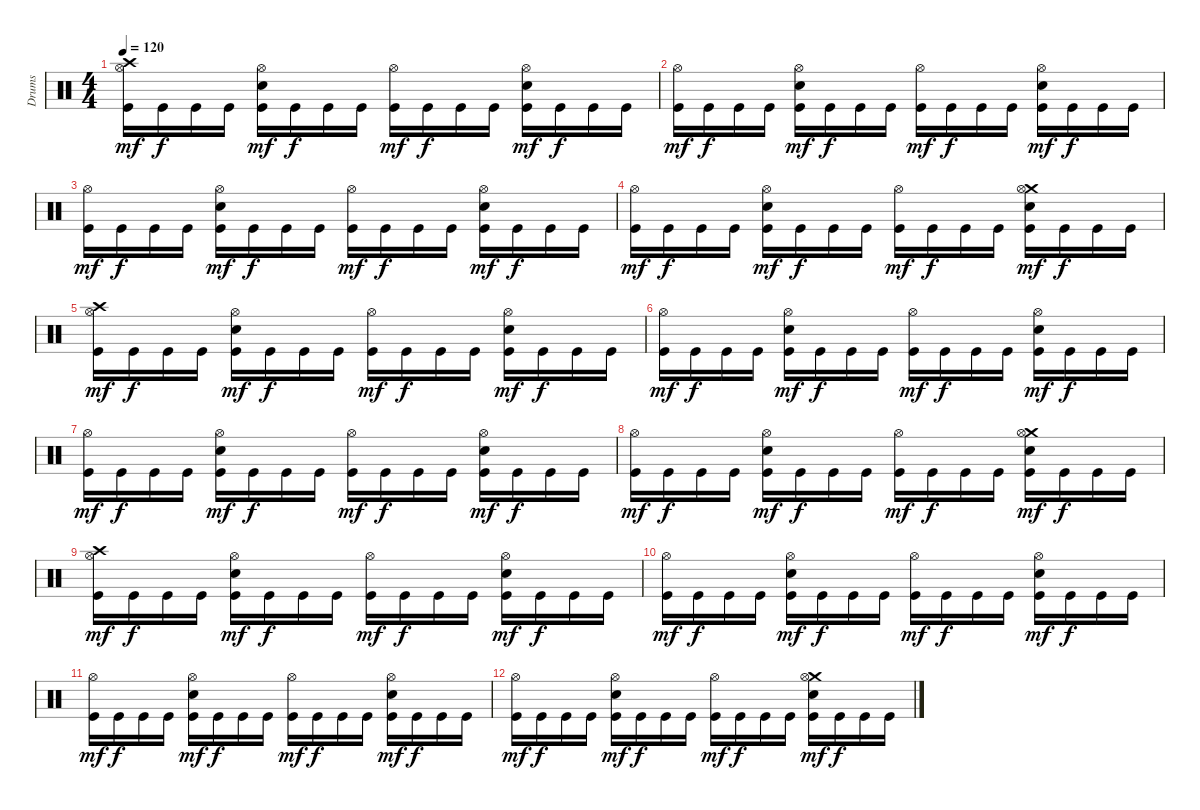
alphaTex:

\track ("Drums" "Drums") {instrument percussion}
\staff {score}
\articulation defaults
\ts (4 4)
\tempo 120
\clef neutral
\ks c
("Crash high (hit)" "Hi-Hat (open)" "Kick (hit)").16{dy mf} "Kick (hit)".16{dy f} "Kick (hit)".16 "Kick (hit)".16 ("Hi-Hat (open)" "Electric Snare (hit)" "Kick (hit)").16{dy mf} "Kick (hit)".16{dy f} "Kick (hit)".16 "Kick (hit)".16 ("Hi-Hat (open)" "Kick (hit)").16{dy mf} "Kick (hit)".16{dy f} "Kick (hit)".16 "Kick (hit)".16 ("Hi-Hat (open)" "Electric Snare (hit)" "Kick (hit)").16{dy mf} "Kick (hit)".16{dy f} "Kick (hit)".16 "Kick (hit)".16 |
("Hi-Hat (open)" "Kick (hit)").16{dy mf} "Kick (hit)".16{dy f} "Kick (hit)".16 "Kick (hit)".16 ("Hi-Hat (open)" "Electric Snare (hit)" "Kick (hit)").16{dy mf} "Kick (hit)".16{dy f} "Kick (hit)".16 "Kick (hit)".16 ("Hi-Hat (open)" "Kick (hit)").16{dy mf} "Kick (hit)".16{dy f} "Kick (hit)".16 "Kick (hit)".16 ("Hi-Hat (open)" "Electric Snare (hit)" "Kick (hit)").16{dy mf} "Kick (hit)".16{dy f} "Kick (hit)".16 "Kick (hit)".16 |
("Hi-Hat (open)" "Kick (hit)").16{dy mf} "Kick (hit)".16{dy f} "Kick (hit)".16 "Kick (hit)".16 ("Hi-Hat (open)" "Electric Snare (hit)" "Kick (hit)").16{dy mf} "Kick (hit)".16{dy f} "Kick (hit)".16 "Kick (hit)".16 ("Hi-Hat (open)" "Kick (hit)").16{dy mf} "Kick (hit)".16{dy f} "Kick (hit)".16 "Kick (hit)".16 ("Hi-Hat (open)" "Electric Snare (hit)" "Kick (hit)").16{dy mf} "Kick (hit)".16{dy f} "Kick (hit)".16 "Kick (hit)".16 |
("Hi-Hat (open)" "Kick (hit)").16{dy mf} "Kick (hit)".16{dy f} "Kick (hit)".16 "Kick (hit)".16 ("Hi-Hat (open)" "Electric Snare (hit)" "Kick (hit)").16{dy mf} "Kick (hit)".16{dy f} "Kick (hit)".16 "Kick (hit)".16 ("Hi-Hat (open)" "Kick (hit)").16{dy mf} "Kick (hit)".16{dy f} "Kick (hit)".16 "Kick (hit)".16 ("Crash medium (hit)" "Hi-Hat (open)" "Electric Snare (hit)" "Kick (hit)").16{dy mf} "Kick (hit)".16{dy f} "Kick (hit)".16 "Kick (hit)".16 |
("Crash high (hit)" "Hi-Hat (open)" "Kick (hit)").16{dy mf} "Kick (hit)".16{dy f} "Kick (hit)".16 "Kick (hit)".16 ("Hi-Hat (open)" "Electric Snare (hit)" "Kick (hit)").16{dy mf} "Kick (hit)".16{dy f} "Kick (hit)".16 "Kick (hit)".16 ("Hi-Hat (open)" "Kick (hit)").16{dy mf} "Kick (hit)".16{dy f} "Kick (hit)".16 "Kick (hit)".16 ("Hi-Hat (open)" "Electric Snare (hit)" "Kick (hit)").16{dy mf} "Kick (hit)".16{dy f} "Kick (hit)".16 "Kick (hit)".16 |
("Hi-Hat (open)" "Kick (hit)").16{dy mf} "Kick (hit)".16{dy f} "Kick (hit)".16 "Kick (hit)".16 ("Hi-Hat (open)" "Electric Snare (hit)" "Kick (hit)").16{dy mf} "Kick (hit)".16{dy f} "Kick (hit)".16 "Kick (hit)".16 ("Hi-Hat (open)" "Kick (hit)").16{dy mf} "Kick (hit)".16{dy f} "Kick (hit)".16 "Kick (hit)".16 ("Hi-Hat (open)" "Electric Snare (hit)" "Kick (hit)").16{dy mf} "Kick (hit)".16{dy f} "Kick (hit)".16 "Kick (hit)".16 |
("Hi-Hat (open)" "Kick (hit)").16{dy mf} "Kick (hit)".16{dy f} "Kick (hit)".16 "Kick (hit)".16 ("Hi-Hat (open)" "Electric Snare (hit)" "Kick (hit)").16{dy mf} "Kick (hit)".16{dy f} "Kick (hit)".16 "Kick (hit)".16 ("Hi-Hat (open)" "Kick (hit)").16{dy mf} "Kick (hit)".16{dy f} "Kick (hit)".16 "Kick (hit)".16 ("Hi-Hat (open)" "Electric Snare (hit)" "Kick (hit)").16{dy mf} "Kick (hit)".16{dy f} "Kick (hit)".16 "Kick (hit)".16 |
("Hi-Hat (open)" "Kick (hit)").16{dy mf} "Kick (hit)".16{dy f} "Kick (hit)".16 "Kick (hit)".16 ("Hi-Hat (open)" "Electric Snare (hit)" "Kick (hit)").16{dy mf} "Kick (hit)".16{dy f} "Kick (hit)".16 "Kick (hit)".16 ("Hi-Hat (open)" "Kick (hit)").16{dy mf} "Kick (hit)".16{dy f} "Kick (hit)".16 "Kick (hit)".16 ("Crash medium (hit)" "Hi-Hat (open)" "Electric Snare (hit)" "Kick (hit)").16{dy mf} "Kick (hit)".16{dy f} "Kick (hit)".16 "Kick (hit)".16 |
("Crash high (hit)" "Hi-Hat (open)" "Kick (hit)").16{dy mf} "Kick (hit)".16{dy f} "Kick (hit)".16 "Kick (hit)".16 ("Hi-Hat (open)" "Electric Snare (hit)" "Kick (hit)").16{dy mf} "Kick (hit)".16{dy f} "Kick (hit)".16 "Kick (hit)".16 ("Hi-Hat (open)" "Kick (hit)").16{dy mf} "Kick (hit)".16{dy f} "Kick (hit)".16 "Kick (hit)".16 ("Hi-Hat (open)" "Electric Snare (hit)" "Kick (hit)").16{dy mf} "Kick (hit)".16{dy f} "Kick (hit)".16 "Kick (hit)".16 |
("Hi-Hat (open)" "Kick (hit)").16{dy mf} "Kick (hit)".16{dy f} "Kick (hit)".16 "Kick (hit)".16 ("Hi-Hat (open)" "Electric Snare (hit)" "Kick (hit)").16{dy mf} "Kick (hit)".16{dy f} "Kick (hit)".16 "Kick (hit)".16 ("Hi-Hat (open)" "Kick (hit)").16{dy mf} "Kick (hit)".16{dy f} "Kick (hit)".16 "Kick (hit)".16 ("Hi-Hat (open)" "Electric Snare (hit)" "Kick (hit)").16{dy mf} "Kick (hit)".16{dy f} "Kick (hit)".16 "Kick (hit)".16 |
("Hi-Hat (open)" "Kick (hit)").16{dy mf} "Kick (hit)".16{dy f} "Kick (hit)".16 "Kick (hit)".16 ("Hi-Hat (open)" "Electric Snare (hit)" "Kick (hit)").16{dy mf} "Kick (hit)".16{dy f} "Kick (hit)".16 "Kick (hit)".16 ("Hi-Hat (open)" "Kick (hit)").16{dy mf} "Kick (hit)".16{dy f} "Kick (hit)".16 "Kick (hit)".16 ("Hi-Hat (open)" "Electric Snare (hit)" "Kick (hit)").16{dy mf} "Kick (hit)".16{dy f} "Kick (hit)".16 "Kick (hit)".16 |
("Hi-Hat (open)" "Kick (hit)").16{dy mf} "Kick (hit)".16{dy f} "Kick (hit)".16 "Kick (hit)".16 ("Hi-Hat (open)" "Electric Snare (hit)" "Kick (hit)").16{dy mf} "Kick (hit)".16{dy f} "Kick (hit)".16 "Kick (hit)".16 ("Hi-Hat (open)" "Kick (hit)").16{dy mf} "Kick (hit)".16{dy f} "Kick (hit)".16 "Kick (hit)".16 ("Crash medium (hit)" "Hi-Hat (open)" "Electric Snare (hit)" "Kick (hit)").16{dy mf} "Kick (hit)".16{dy f} "Kick (hit)".16 "Kick (hit)".16
